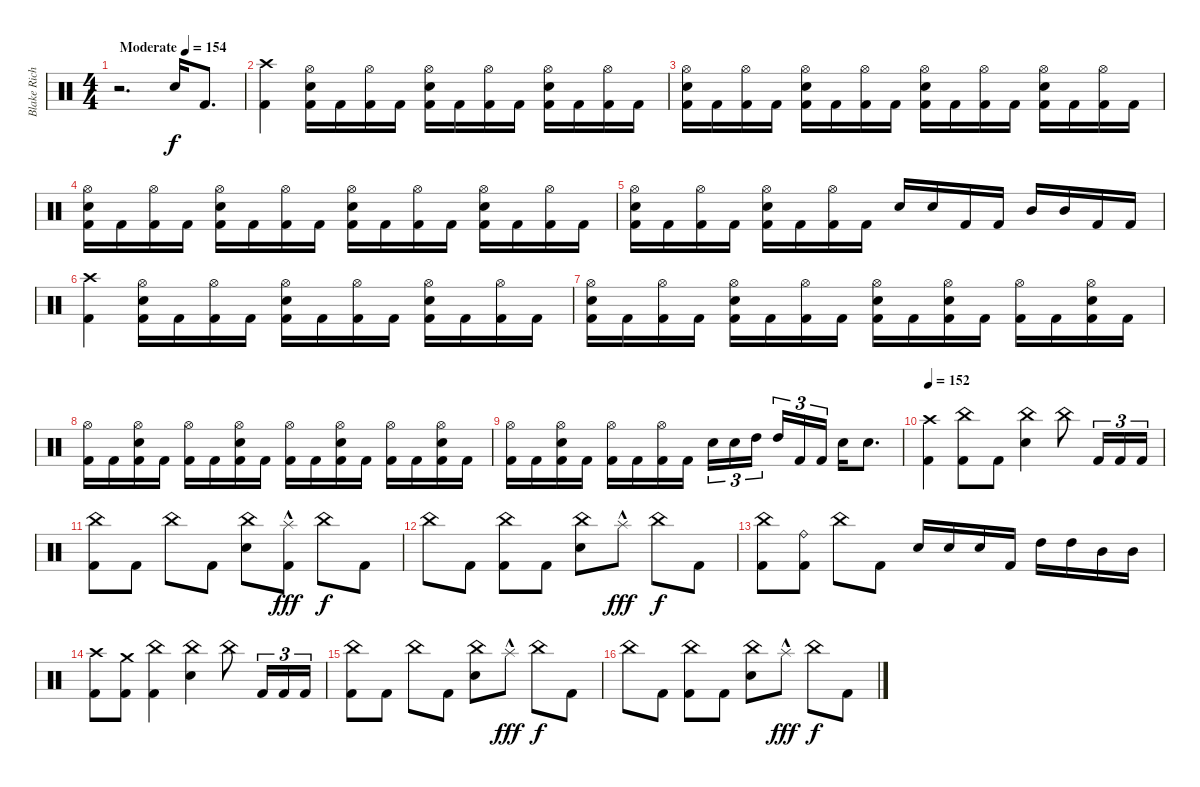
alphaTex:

\track ("Blake Richardson" "Blake Rich") {instrument percussion}
\staff {score}
\articulation defaults
\ts (4 4)
\tempo (154 "Moderate")
\clef neutral
\ks c
r.2{d dy f} "Electric Snare (hit)".16 "Kick (hit) 2".8{d} |
("Crash high (hit)" "Kick (hit) 2").4 ("Hi-Hat (open)" "Electric Snare (hit)" "Kick (hit) 2").16 "Kick (hit) 2".16 ("Hi-Hat (open)" "Kick (hit) 2").16 "Kick (hit) 2".16 ("Hi-Hat (open)" "Electric Snare (hit)" "Kick (hit) 2").16 "Kick (hit) 2".16 ("Hi-Hat (open)" "Kick (hit) 2").16 "Kick (hit) 2".16 ("Hi-Hat (open)" "Electric Snare (hit)" "Kick (hit) 2").16 "Kick (hit) 2".16 ("Hi-Hat (open)" "Kick (hit) 2").16 "Kick (hit) 2".16 |
("Hi-Hat (open)" "Electric Snare (hit)" "Kick (hit) 2").16 "Kick (hit) 2".16 ("Hi-Hat (open)" "Kick (hit) 2").16 "Kick (hit) 2".16 ("Hi-Hat (open)" "Electric Snare (hit)" "Kick (hit) 2").16 "Kick (hit) 2".16 ("Hi-Hat (open)" "Kick (hit) 2").16 "Kick (hit) 2".16 ("Hi-Hat (open)" "Electric Snare (hit)" "Kick (hit) 2").16 "Kick (hit) 2".16 ("Hi-Hat (open)" "Kick (hit) 2").16 "Kick (hit) 2".16 ("Hi-Hat (open)" "Electric Snare (hit)" "Kick (hit) 2").16 "Kick (hit) 2".16 ("Hi-Hat (open)" "Kick (hit) 2").16 "Kick (hit) 2".16 |
("Hi-Hat (open)" "Electric Snare (hit)" "Kick (hit) 2").16 "Kick (hit) 2".16 ("Hi-Hat (open)" "Kick (hit) 2").16 "Kick (hit) 2".16 ("Hi-Hat (open)" "Electric Snare (hit)" "Kick (hit) 2").16 "Kick (hit) 2".16 ("Hi-Hat (open)" "Kick (hit) 2").16 "Kick (hit) 2".16 ("Hi-Hat (open)" "Electric Snare (hit)" "Kick (hit) 2").16 "Kick (hit) 2".16 ("Hi-Hat (open)" "Kick (hit) 2").16 "Kick (hit) 2".16 ("Hi-Hat (open)" "Electric Snare (hit)" "Kick (hit) 2").16 "Kick (hit) 2".16 ("Hi-Hat (open)" "Kick (hit) 2").16 "Kick (hit) 2".16 |
("Hi-Hat (open)" "Electric Snare (hit)" "Kick (hit) 2").16 "Kick (hit) 2".16 ("Hi-Hat (open)" "Kick (hit) 2").16 "Kick (hit) 2".16 ("Hi-Hat (open)" "Electric Snare (hit)" "Kick (hit) 2").16 "Kick (hit) 2".16 ("Hi-Hat (open)" "Kick (hit) 2").16 "Kick (hit) 2".16 "Electric Snare (hit)".16 "Electric Snare (hit)".16 "Kick (hit) 2".16 "Kick (hit) 2".16 "Mid Tom (hit)".16 "Mid Tom (hit)".16 "Kick (hit) 2".16 "Kick (hit) 2".16 |
("Crash high (hit)" "Kick (hit) 2").4 ("Hi-Hat (open)" "Electric Snare (hit)" "Kick (hit) 2").16 "Kick (hit) 2".16 ("Hi-Hat (open)" "Kick (hit) 2").16 "Kick (hit) 2".16 ("Hi-Hat (open)" "Electric Snare (hit)" "Kick (hit) 2").16 "Kick (hit) 2".16 ("Hi-Hat (open)" "Kick (hit) 2").16 "Kick (hit) 2".16 ("Hi-Hat (open)" "Electric Snare (hit)" "Kick (hit) 2").16 "Kick (hit) 2".16 ("Hi-Hat (open)" "Kick (hit) 2").16 "Kick (hit) 2".16 |
("Hi-Hat (open)" "Electric Snare (hit)" "Kick (hit) 2").16 "Kick (hit) 2".16 ("Hi-Hat (open)" "Kick (hit) 2").16 "Kick (hit) 2".16 ("Hi-Hat (open)" "Electric Snare (hit)" "Kick (hit) 2").16 "Kick (hit) 2".16 ("Hi-Hat (open)" "Kick (hit) 2").16 "Kick (hit) 2".16 ("Hi-Hat (open)" "Electric Snare (hit)" "Kick (hit) 2").16 "Kick (hit) 2".16 ("Hi-Hat (open)" "Electric Snare (hit)" "Kick (hit) 2").16 "Kick (hit) 2".16 ("Hi-Hat (open)" "Kick (hit) 2").16 "Kick (hit) 2".16 ("Hi-Hat (open)" "Electric Snare (hit)" "Kick (hit) 2").16 "Kick (hit) 2".16 |
("Hi-Hat (open)" "Kick (hit) 2").16 "Kick (hit) 2".16 ("Hi-Hat (open)" "Electric Snare (hit)" "Kick (hit) 2").16 "Kick (hit) 2".16 ("Hi-Hat (open)" "Kick (hit) 2").16 "Kick (hit) 2".16 ("Hi-Hat (open)" "Electric Snare (hit)" "Kick (hit) 2").16 "Kick (hit) 2".16 ("Hi-Hat (open)" "Kick (hit) 2").16 "Kick (hit) 2".16 ("Hi-Hat (open)" "Electric Snare (hit)" "Kick (hit) 2").16 "Kick (hit) 2".16 ("Hi-Hat (open)" "Kick (hit) 2").16 "Kick (hit) 2".16 ("Hi-Hat (open)" "Electric Snare (hit)" "Kick (hit) 2").16 "Kick (hit) 2".16 |
("Hi-Hat (open)" "Kick (hit) 2").16 "Kick (hit) 2".16 ("Hi-Hat (open)" "Electric Snare (hit)" "Kick (hit) 2").16 "Kick (hit) 2".16 ("Hi-Hat (open)" "Kick (hit) 2").16 "Kick (hit) 2".16 ("Hi-Hat (open)" "Kick (hit) 2").16 "Kick (hit) 2".16 "Electric Snare (hit)".16{tu (3 2)} "Electric Snare (hit)".16{tu (3 2)} "High Tom (hit)".16{tu (3 2) beam splitsecondary} "High Tom (hit)".16{tu (3 2)} "Kick (hit) 2".16{tu (3 2)} "Kick (hit) 2".16{tu (3 2)} "Electric Snare (hit)".16 "Electric Snare (hit)".8{d} |
\tempo 152
("Crash high (hit)" "Kick (hit) 2").4 ("China (hit)" "Kick (hit) 2").8 "Kick (hit) 2".8 ("China (hit)" "Electric Snare (hit)").4 "China (hit)".8 "Kick (hit) 2".16{tu (3 2)} "Kick (hit) 2".16{tu (3 2)} "Kick (hit) 2".16{tu (3 2)} |
("China (hit)" "Kick (hit) 2").8 "Kick (hit) 2".8 "China (hit)".8 "Kick (hit) 2".8 ("China (hit)" "Electric Snare (hit)").8 ("Splash (hit)"{hac} "Kick (hit) 2").8{dy fff} "China (hit)".8{dy f} "Kick (hit) 2".8 |
"China (hit)".8 "Kick (hit) 2".8 ("China (hit)" "Kick (hit) 2").8 "Kick (hit) 2".8 ("China (hit)" "Electric Snare (hit)").8 "Splash (hit)"{hac}.8{dy fff} "China (hit)".8{dy f} "Kick (hit) 2".8 |
("China (hit)" "Kick (hit) 2").8 ("Ride (bell)" "Kick (hit) 2").8 "China (hit)".8 "Kick (hit) 2".8 "Electric Snare (hit)".16 "Electric Snare (hit)".16 "Electric Snare (hit)".16 "Kick (hit) 2".16 "High Tom (hit)".16 "High Tom (hit)".16 "Mid Tom (hit)".16 "Mid Tom (hit)".16 |
("Crash high (hit)" "Kick (hit) 2").8 ("Crash medium (hit)" "Kick (hit) 2").8 ("China (hit)" "Kick (hit) 2").4 ("China (hit)" "Electric Snare (hit)").4 "China (hit)".8 "Kick (hit) 2".16{tu (3 2)} "Kick (hit) 2".16{tu (3 2)} "Kick (hit) 2".16{tu (3 2)} |
("China (hit)" "Kick (hit) 2").8 "Kick (hit) 2".8 "China (hit)".8 "Kick (hit) 2".8 ("China (hit)" "Electric Snare (hit)").8 "Splash (hit)"{hac}.8{dy fff} "China (hit)".8{dy f} "Kick (hit) 2".8 |
"China (hit)".8 "Kick (hit) 2".8 ("China (hit)" "Kick (hit) 2").8 "Kick (hit) 2".8 ("China (hit)" "Electric Snare (hit)").8 "Splash (hit)"{hac}.8{dy fff} "China (hit)".8{dy f} "Kick (hit) 2".8
